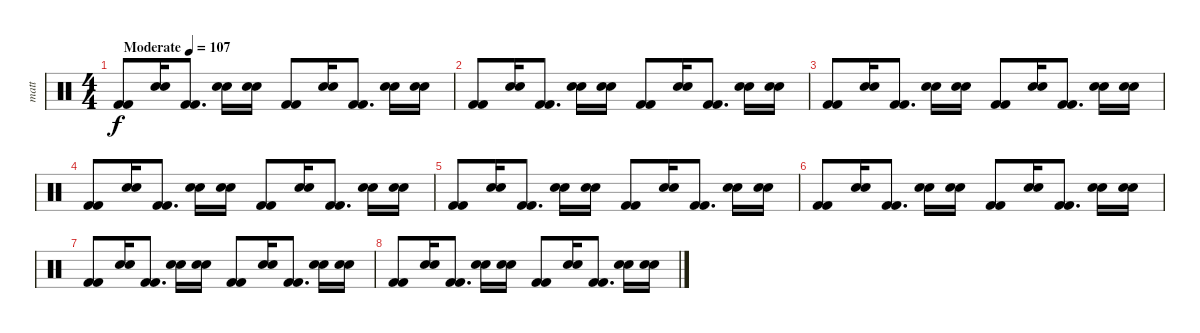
\track ("matt" "matt") {instrument percussion}
\staff {score}
\articulation defaults
\ts (4 4)
\tempo (107 "Moderate")
\clef neutral
\ks c
("Kick (hit) 2" "Kick (hit) 2").8{dy f} ("Snare (hit) 2" "Snare (hit) 2").16 ("Kick (hit) 2" "Kick (hit) 2").8{d} ("Snare (hit) 2" "Snare (hit) 2").16 ("Snare (hit) 2" "Snare (hit) 2").16 ("Kick (hit) 2" "Kick (hit) 2").8 ("Snare (hit) 2" "Snare (hit) 2").16 ("Kick (hit) 2" "Kick (hit) 2").8{d} ("Snare (hit) 2" "Snare (hit) 2").16 ("Snare (hit) 2" "Snare (hit) 2").16 |
("Kick (hit) 2" "Kick (hit) 2").8 ("Snare (hit) 2" "Snare (hit) 2").16 ("Kick (hit) 2" "Kick (hit) 2").8{d} ("Snare (hit) 2" "Snare (hit) 2").16 ("Snare (hit) 2" "Snare (hit) 2").16 ("Kick (hit) 2" "Kick (hit) 2").8 ("Snare (hit) 2" "Snare (hit) 2").16 ("Kick (hit) 2" "Kick (hit) 2").8{d} ("Snare (hit) 2" "Snare (hit) 2").16 ("Snare (hit) 2" "Snare (hit) 2").16 |
("Kick (hit) 2" "Kick (hit) 2").8 ("Snare (hit) 2" "Snare (hit) 2").16 ("Kick (hit) 2" "Kick (hit) 2").8{d} ("Snare (hit) 2" "Snare (hit) 2").16 ("Snare (hit) 2" "Snare (hit) 2").16 ("Kick (hit) 2" "Kick (hit) 2").8 ("Snare (hit) 2" "Snare (hit) 2").16 ("Kick (hit) 2" "Kick (hit) 2").8{d} ("Snare (hit) 2" "Snare (hit) 2").16 ("Snare (hit) 2" "Snare (hit) 2").16 |
("Kick (hit) 2" "Kick (hit) 2").8 ("Snare (hit) 2" "Snare (hit) 2").16 ("Kick (hit) 2" "Kick (hit) 2").8{d} ("Snare (hit) 2" "Snare (hit) 2").16 ("Snare (hit) 2" "Snare (hit) 2").16 ("Kick (hit) 2" "Kick (hit) 2").8 ("Snare (hit) 2" "Snare (hit) 2").16 ("Kick (hit) 2" "Kick (hit) 2").8{d} ("Snare (hit) 2" "Snare (hit) 2").16 ("Snare (hit) 2" "Snare (hit) 2").16 |
("Kick (hit) 2" "Kick (hit) 2").8 ("Snare (hit) 2" "Snare (hit) 2").16 ("Kick (hit) 2" "Kick (hit) 2").8{d} ("Snare (hit) 2" "Snare (hit) 2").16 ("Snare (hit) 2" "Snare (hit) 2").16 ("Kick (hit) 2" "Kick (hit) 2").8 ("Snare (hit) 2" "Snare (hit) 2").16 ("Kick (hit) 2" "Kick (hit) 2").8{d} ("Snare (hit) 2" "Snare (hit) 2").16 ("Snare (hit) 2" "Snare (hit) 2").16 |
("Kick (hit) 2" "Kick (hit) 2").8 ("Snare (hit) 2" "Snare (hit) 2").16 ("Kick (hit) 2" "Kick (hit) 2").8{d} ("Snare (hit) 2" "Snare (hit) 2").16 ("Snare (hit) 2" "Snare (hit) 2").16 ("Kick (hit) 2" "Kick (hit) 2").8 ("Snare (hit) 2" "Snare (hit) 2").16 ("Kick (hit) 2" "Kick (hit) 2").8{d} ("Snare (hit) 2" "Snare (hit) 2").16 ("Snare (hit) 2" "Snare (hit) 2").16 |
("Kick (hit) 2" "Kick (hit) 2").8 ("Snare (hit) 2" "Snare (hit) 2").16 ("Kick (hit) 2" "Kick (hit) 2").8{d} ("Snare (hit) 2" "Snare (hit) 2").16 ("Snare (hit) 2" "Snare (hit) 2").16 ("Kick (hit) 2" "Kick (hit) 2").8 ("Snare (hit) 2" "Snare (hit) 2").16 ("Kick (hit) 2" "Kick (hit) 2").8{d} ("Snare (hit) 2" "Snare (hit) 2").16 ("Snare (hit) 2" "Snare (hit) 2").16 |
("Kick (hit) 2" "Kick (hit) 2").8 ("Snare (hit) 2" "Snare (hit) 2").16 ("Kick (hit) 2" "Kick (hit) 2").8{d} ("Snare (hit) 2" "Snare (hit) 2").16 ("Snare (hit) 2" "Snare (hit) 2").16 ("Kick (hit) 2" "Kick (hit) 2").8 ("Snare (hit) 2" "Snare (hit) 2").16 ("Kick (hit) 2" "Kick (hit) 2").8{d} ("Snare (hit) 2" "Snare (hit) 2").16 ("Snare (hit) 2" "Snare (hit) 2").16
